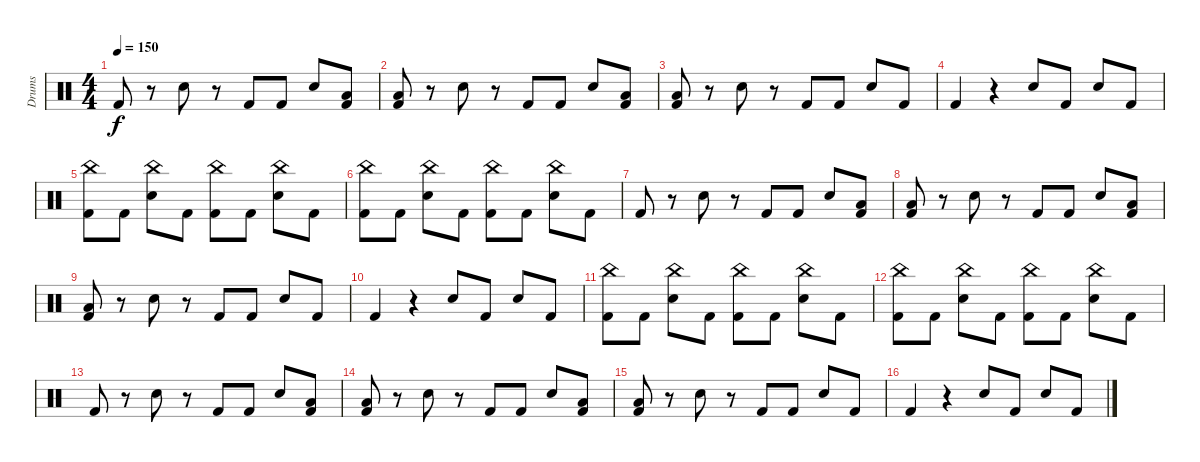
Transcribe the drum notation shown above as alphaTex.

\track ("Drums" "Drums") {instrument percussion}
\staff {score}
\articulation defaults
\ts (4 4)
\tempo 150
\clef neutral
\ks c "Kick (hit) 2".8{dy f}
r.8 "Snare (hit) 2".8 r.8 "Kick (hit) 2".8 "Kick (hit) 2".8 "Snare (hit) 2".8 ("Low Tom (hit)" "Kick (hit) 2").8 |
("Low Tom (hit)" "Kick (hit) 2").8 r.8 "Snare (hit) 2".8 r.8 "Kick (hit) 2".8 "Kick (hit) 2".8 "Snare (hit) 2".8 ("Low Tom (hit)" "Kick (hit) 2").8 |
("Low Tom (hit)" "Kick (hit) 2").8 r.8 "Snare (hit) 2".8 r.8 "Kick (hit) 2".8 "Kick (hit) 2".8 "Snare (hit) 2".8 "Kick (hit) 2".8 |
"Kick (hit) 2".4 r.4 "Snare (hit) 2".8 "Kick (hit) 2".8 "Snare (hit) 2".8 "Kick (hit) 2".8 |
("China (hit)" "Kick (hit) 2").8 "Kick (hit) 2".8 ("China (hit)" "Snare (hit) 2").8 "Kick (hit) 2".8 ("China (hit)" "Kick (hit) 2").8 "Kick (hit) 2".8 ("China (hit)" "Snare (hit) 2").8 "Kick (hit) 2".8 |
("China (hit)" "Kick (hit) 2").8 "Kick (hit) 2".8 ("China (hit)" "Snare (hit) 2").8 "Kick (hit) 2".8 ("China (hit)" "Kick (hit) 2").8 "Kick (hit) 2".8 ("China (hit)" "Snare (hit) 2").8 "Kick (hit) 2".8 |
"Kick (hit) 2".8 r.8 "Snare (hit) 2".8 r.8 "Kick (hit) 2".8 "Kick (hit) 2".8 "Snare (hit) 2".8 ("Low Tom (hit)" "Kick (hit) 2").8 |
("Low Tom (hit)" "Kick (hit) 2").8 r.8 "Snare (hit) 2".8 r.8 "Kick (hit) 2".8 "Kick (hit) 2".8 "Snare (hit) 2".8 ("Low Tom (hit)" "Kick (hit) 2").8 |
("Low Tom (hit)" "Kick (hit) 2").8 r.8 "Snare (hit) 2".8 r.8 "Kick (hit) 2".8 "Kick (hit) 2".8 "Snare (hit) 2".8 "Kick (hit) 2".8 |
"Kick (hit) 2".4 r.4 "Snare (hit) 2".8 "Kick (hit) 2".8 "Snare (hit) 2".8 "Kick (hit) 2".8 |
("China (hit)" "Kick (hit) 2").8 "Kick (hit) 2".8 ("China (hit)" "Snare (hit) 2").8 "Kick (hit) 2".8 ("China (hit)" "Kick (hit) 2").8 "Kick (hit) 2".8 ("China (hit)" "Snare (hit) 2").8 "Kick (hit) 2".8 |
("China (hit)" "Kick (hit) 2").8 "Kick (hit) 2".8 ("China (hit)" "Snare (hit) 2").8 "Kick (hit) 2".8 ("China (hit)" "Kick (hit) 2").8 "Kick (hit) 2".8 ("China (hit)" "Snare (hit) 2").8 "Kick (hit) 2".8 |
"Kick (hit) 2".8 r.8 "Snare (hit) 2".8 r.8 "Kick (hit) 2".8 "Kick (hit) 2".8 "Snare (hit) 2".8 ("Low Tom (hit)" "Kick (hit) 2").8 |
("Low Tom (hit)" "Kick (hit) 2").8 r.8 "Snare (hit) 2".8 r.8 "Kick (hit) 2".8 "Kick (hit) 2".8 "Snare (hit) 2".8 ("Low Tom (hit)" "Kick (hit) 2").8 |
("Low Tom (hit)" "Kick (hit) 2").8 r.8 "Snare (hit) 2".8 r.8 "Kick (hit) 2".8 "Kick (hit) 2".8 "Snare (hit) 2".8 "Kick (hit) 2".8 |
"Kick (hit) 2".4 r.4 "Snare (hit) 2".8 "Kick (hit) 2".8 "Snare (hit) 2".8 "Kick (hit) 2".8
